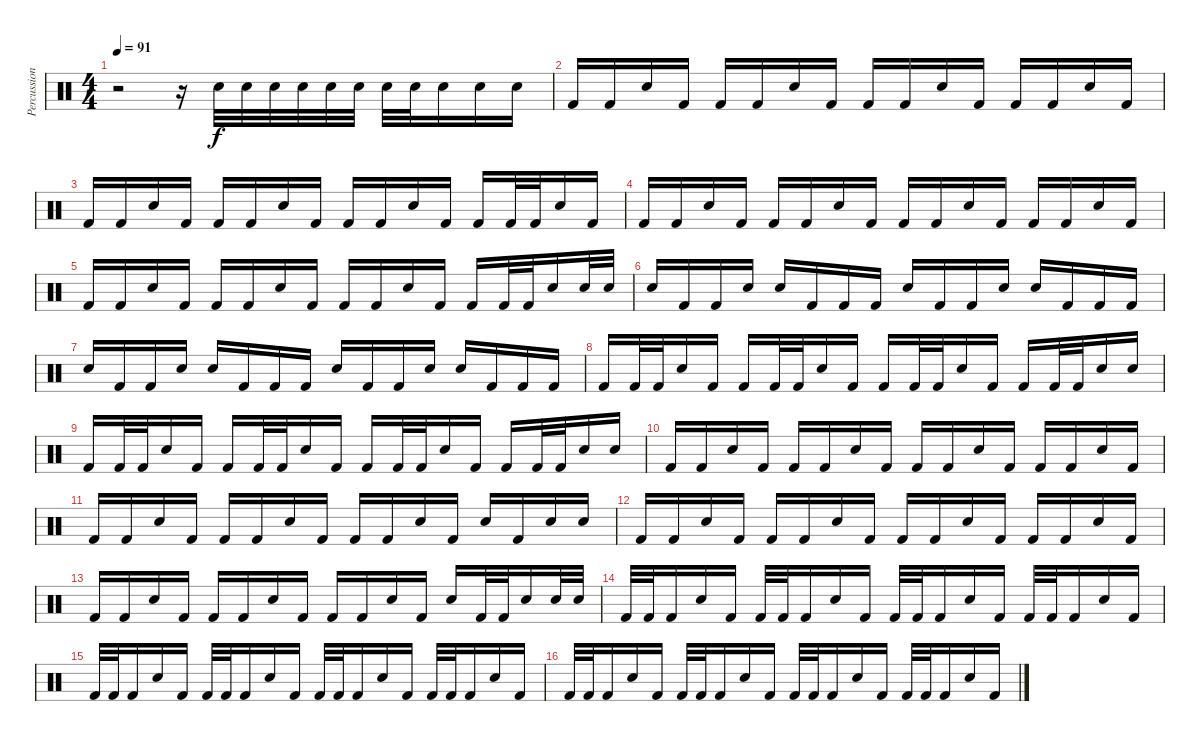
\track ("Percussion" "Percussion") {instrument percussion}
\staff {score}
\articulation defaults
\ts (4 4)
\tempo 91
\clef neutral
\ks c
r.2{dy f} r.16 "Snare (hit) 2".32 "Snare (hit) 2".32 "Snare (hit) 2".32 "Snare (hit) 2".32 "Snare (hit) 2".32 "Snare (hit) 2".32 "Snare (hit) 2".32 "Snare (hit) 2".32 "Snare (hit) 2".16 "Snare (hit) 2".16 "Snare (hit) 2".16 |
"Kick (hit) 2".16 "Kick (hit) 2".16 "Snare (hit) 2".16 "Kick (hit) 2".16 "Kick (hit) 2".16 "Kick (hit) 2".16 "Snare (hit) 2".16 "Kick (hit) 2".16 "Kick (hit) 2".16 "Kick (hit) 2".16 "Snare (hit) 2".16 "Kick (hit) 2".16 "Kick (hit) 2".16 "Kick (hit) 2".16 "Snare (hit) 2".16 "Kick (hit) 2".16 |
"Kick (hit) 2".16 "Kick (hit) 2".16 "Snare (hit) 2".16 "Kick (hit) 2".16 "Kick (hit) 2".16 "Kick (hit) 2".16 "Snare (hit) 2".16 "Kick (hit) 2".16 "Kick (hit) 2".16 "Kick (hit) 2".16 "Snare (hit) 2".16 "Kick (hit) 2".16 "Kick (hit) 2".16 "Kick (hit) 2".32 "Kick (hit) 2".32 "Snare (hit) 2".16 "Kick (hit) 2".16 |
"Kick (hit) 2".16 "Kick (hit) 2".16 "Snare (hit) 2".16 "Kick (hit) 2".16 "Kick (hit) 2".16 "Kick (hit) 2".16 "Snare (hit) 2".16 "Kick (hit) 2".16 "Kick (hit) 2".16 "Kick (hit) 2".16 "Snare (hit) 2".16 "Kick (hit) 2".16 "Kick (hit) 2".16 "Kick (hit) 2".16 "Snare (hit) 2".16 "Kick (hit) 2".16 |
"Kick (hit) 2".16 "Kick (hit) 2".16 "Snare (hit) 2".16 "Kick (hit) 2".16 "Kick (hit) 2".16 "Kick (hit) 2".16 "Snare (hit) 2".16 "Kick (hit) 2".16 "Kick (hit) 2".16 "Kick (hit) 2".16 "Snare (hit) 2".16 "Kick (hit) 2".16 "Kick (hit) 2".16 "Kick (hit) 2".32 "Kick (hit) 2".32 "Snare (hit) 2".16 "Snare (hit) 2".32 "Snare (hit) 2".32 |
"Snare (hit) 2".16 "Kick (hit) 2".16 "Kick (hit) 2".16 "Snare (hit) 2".16 "Snare (hit) 2".16 "Kick (hit) 2".16 "Kick (hit) 2".16 "Kick (hit) 2".16 "Snare (hit) 2".16 "Kick (hit) 2".16 "Kick (hit) 2".16 "Snare (hit) 2".16 "Snare (hit) 2".16 "Kick (hit) 2".16 "Kick (hit) 2".16 "Kick (hit) 2".16 |
"Snare (hit) 2".16 "Kick (hit) 2".16 "Kick (hit) 2".16 "Snare (hit) 2".16 "Snare (hit) 2".16 "Kick (hit) 2".16 "Kick (hit) 2".16 "Kick (hit) 2".16 "Snare (hit) 2".16 "Kick (hit) 2".16 "Kick (hit) 2".16 "Snare (hit) 2".16 "Snare (hit) 2".16 "Kick (hit) 2".16 "Kick (hit) 2".16 "Kick (hit) 2".16 |
"Kick (hit) 2".16 "Kick (hit) 2".32 "Kick (hit) 2".32 "Snare (hit) 2".16 "Kick (hit) 2".16 "Kick (hit) 2".16 "Kick (hit) 2".32 "Kick (hit) 2".32 "Snare (hit) 2".16 "Kick (hit) 2".16 "Kick (hit) 2".16 "Kick (hit) 2".32 "Kick (hit) 2".32 "Snare (hit) 2".16 "Kick (hit) 2".16 "Kick (hit) 2".16 "Kick (hit) 2".32 "Kick (hit) 2".32 "Snare (hit) 2".16 "Snare (hit) 2".16 |
"Kick (hit) 2".16 "Kick (hit) 2".32 "Kick (hit) 2".32 "Snare (hit) 2".16 "Kick (hit) 2".16 "Kick (hit) 2".16 "Kick (hit) 2".32 "Kick (hit) 2".32 "Snare (hit) 2".16 "Kick (hit) 2".16 "Kick (hit) 2".16 "Kick (hit) 2".32 "Kick (hit) 2".32 "Snare (hit) 2".16 "Kick (hit) 2".16 "Kick (hit) 2".16 "Kick (hit) 2".32 "Kick (hit) 2".32 "Snare (hit) 2".16 "Snare (hit) 2".16 |
"Kick (hit) 2".16 "Kick (hit) 2".16 "Snare (hit) 2".16 "Kick (hit) 2".16 "Kick (hit) 2".16 "Kick (hit) 2".16 "Snare (hit) 2".16 "Kick (hit) 2".16 "Kick (hit) 2".16 "Kick (hit) 2".16 "Snare (hit) 2".16 "Kick (hit) 2".16 "Kick (hit) 2".16 "Kick (hit) 2".16 "Snare (hit) 2".16 "Kick (hit) 2".16 |
"Kick (hit) 2".16 "Kick (hit) 2".16 "Snare (hit) 2".16 "Kick (hit) 2".16 "Kick (hit) 2".16 "Kick (hit) 2".16 "Snare (hit) 2".16 "Kick (hit) 2".16 "Kick (hit) 2".16 "Kick (hit) 2".16 "Snare (hit) 2".16 "Kick (hit) 2".16 "Snare (hit) 2".16 "Kick (hit) 2".16 "Snare (hit) 2".16 "Snare (hit) 2".16 |
"Kick (hit) 2".16 "Kick (hit) 2".16 "Snare (hit) 2".16 "Kick (hit) 2".16 "Kick (hit) 2".16 "Kick (hit) 2".16 "Snare (hit) 2".16 "Kick (hit) 2".16 "Kick (hit) 2".16 "Kick (hit) 2".16 "Snare (hit) 2".16 "Kick (hit) 2".16 "Kick (hit) 2".16 "Kick (hit) 2".16 "Snare (hit) 2".16 "Kick (hit) 2".16 |
"Kick (hit) 2".16 "Kick (hit) 2".16 "Snare (hit) 2".16 "Kick (hit) 2".16 "Kick (hit) 2".16 "Kick (hit) 2".16 "Snare (hit) 2".16 "Kick (hit) 2".16 "Kick (hit) 2".16 "Kick (hit) 2".16 "Snare (hit) 2".16 "Kick (hit) 2".16 "Snare (hit) 2".16 "Kick (hit) 2".32 "Kick (hit) 2".32 "Snare (hit) 2".16 "Snare (hit) 2".32 "Snare (hit) 2".32 |
"Kick (hit) 2".32 "Kick (hit) 2".32 "Kick (hit) 2".16 "Snare (hit) 2".16 "Kick (hit) 2".16 "Kick (hit) 2".32 "Kick (hit) 2".32 "Kick (hit) 2".16 "Snare (hit) 2".16 "Kick (hit) 2".16 "Kick (hit) 2".32 "Kick (hit) 2".32 "Kick (hit) 2".16 "Snare (hit) 2".16 "Kick (hit) 2".16 "Kick (hit) 2".32 "Kick (hit) 2".32 "Kick (hit) 2".16 "Snare (hit) 2".16 "Kick (hit) 2".16 |
"Kick (hit) 2".32 "Kick (hit) 2".32 "Kick (hit) 2".16 "Snare (hit) 2".16 "Kick (hit) 2".16 "Kick (hit) 2".32 "Kick (hit) 2".32 "Kick (hit) 2".16 "Snare (hit) 2".16 "Kick (hit) 2".16 "Kick (hit) 2".32 "Kick (hit) 2".32 "Kick (hit) 2".16 "Snare (hit) 2".16 "Kick (hit) 2".16 "Kick (hit) 2".32 "Kick (hit) 2".32 "Kick (hit) 2".16 "Snare (hit) 2".16 "Kick (hit) 2".16 |
"Kick (hit) 2".32 "Kick (hit) 2".32 "Kick (hit) 2".16 "Snare (hit) 2".16 "Kick (hit) 2".16 "Kick (hit) 2".32 "Kick (hit) 2".32 "Kick (hit) 2".16 "Snare (hit) 2".16 "Kick (hit) 2".16 "Kick (hit) 2".32 "Kick (hit) 2".32 "Kick (hit) 2".16 "Snare (hit) 2".16 "Kick (hit) 2".16 "Kick (hit) 2".32 "Kick (hit) 2".32 "Kick (hit) 2".16 "Snare (hit) 2".16 "Kick (hit) 2".16
